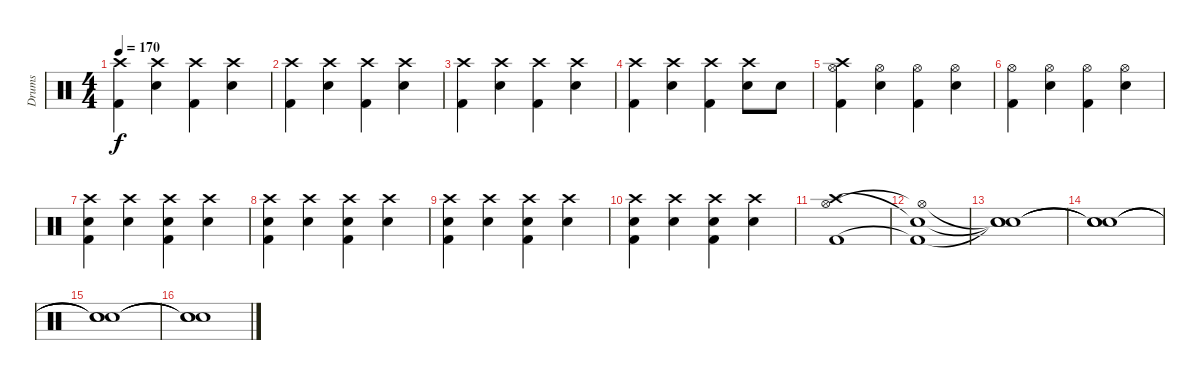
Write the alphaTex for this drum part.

\track ("Drums" "Drums") {instrument percussion}
\staff {score}
\articulation defaults
\ts (4 4)
\tempo 170
\clef neutral
\ks c
("Crash high (hit)" "Kick (hit) 2").4{dy f} ("Crash high (hit)" "Electric Snare (hit)").4 ("Crash high (hit)" "Kick (hit) 2").4 ("Crash high (hit)" "Electric Snare (hit)").4 |
("Crash high (hit)" "Kick (hit) 2").4 ("Crash high (hit)" "Electric Snare (hit)").4 ("Crash high (hit)" "Kick (hit) 2").4 ("Crash high (hit)" "Electric Snare (hit)").4 |
("Crash high (hit)" "Kick (hit) 2").4 ("Crash high (hit)" "Electric Snare (hit)").4 ("Crash high (hit)" "Kick (hit) 2").4 ("Crash high (hit)" "Electric Snare (hit)").4 |
("Crash high (hit)" "Kick (hit) 2").4 ("Crash high (hit)" "Electric Snare (hit)").4 ("Crash high (hit)" "Kick (hit) 2").4 ("Crash high (hit)" "Electric Snare (hit)").8 "Electric Snare (hit)".8 |
("Crash high (hit)" "Hi-Hat (open)" "Kick (hit) 2").4 ("Hi-Hat (open)" "Electric Snare (hit)").4 ("Hi-Hat (open)" "Kick (hit) 2").4 ("Hi-Hat (open)" "Electric Snare (hit)").4 |
("Hi-Hat (open)" "Kick (hit) 2").4 ("Hi-Hat (open)" "Electric Snare (hit)").4 ("Hi-Hat (open)" "Kick (hit) 2").4 ("Hi-Hat (open)" "Electric Snare (hit)").4 |
("Crash high (hit)" "Electric Snare (hit)" "Kick (hit) 2").4 ("Crash high (hit)" "Electric Snare (hit)").4 ("Crash high (hit)" "Electric Snare (hit)" "Kick (hit) 2").4 ("Crash high (hit)" "Electric Snare (hit)").4 |
("Crash high (hit)" "Electric Snare (hit)" "Kick (hit) 2").4 ("Crash high (hit)" "Electric Snare (hit)").4 ("Crash high (hit)" "Electric Snare (hit)" "Kick (hit) 2").4 ("Crash high (hit)" "Electric Snare (hit)").4 |
("Crash high (hit)" "Electric Snare (hit)" "Kick (hit) 2").4 ("Crash high (hit)" "Electric Snare (hit)").4 ("Crash high (hit)" "Electric Snare (hit)" "Kick (hit) 2").4 ("Crash high (hit)" "Electric Snare (hit)").4 |
("Crash high (hit)" "Electric Snare (hit)" "Kick (hit) 2").4 ("Crash high (hit)" "Electric Snare (hit)").4 ("Crash high (hit)" "Electric Snare (hit)" "Kick (hit) 2").4 ("Crash high (hit)" "Electric Snare (hit)").4 |
("Crash high (hit)" "Hi-Hat (open)" "Kick (hit) 2").1 |
("Snare (hit)"{t} "Hi-Hat (open)"{t} "Kick (hit) 2"{t}).1 |
("Snare (hit)"{t} "Snare (hit)"{t} "Snare (hit)"{t}).1 |
("Snare (hit)"{t} "Snare (hit)"{t} "Snare (hit)"{t}).1 |
("Snare (hit)"{t} "Snare (hit)"{t} "Snare (hit)"{t}).1 |
("Snare (hit)"{t} "Snare (hit)"{t} "Snare (hit)"{t}).1
